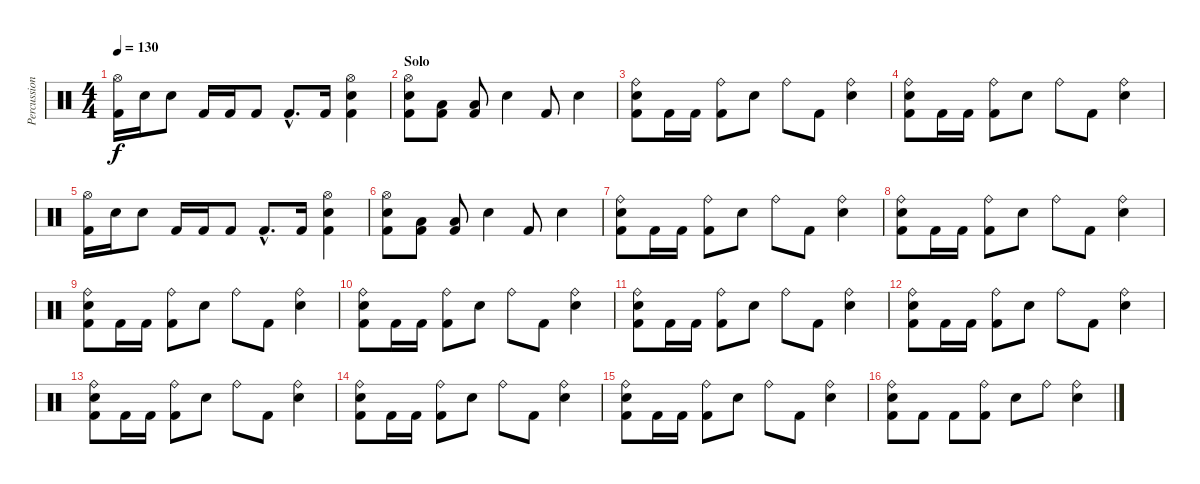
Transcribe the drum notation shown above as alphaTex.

\track ("Percussion" "Percussion") {instrument percussion}
\staff {score}
\articulation defaults
\ts (4 4)
\tempo 130
\clef neutral
\ks c
("Hi-Hat (open)" "Kick (hit) 2").16{dy f} "Electric Snare (hit)".16 "Electric Snare (hit)".8 "Kick (hit) 2".16 "Kick (hit) 2".16 "Kick (hit) 2".8 "Kick (hit) 2"{hac}.8{d} "Kick (hit) 2".16 ("Hi-Hat (open)" "Kick (hit) 2" "Electric Snare (hit)").4 |
\section ("" "Solo")
("Hi-Hat (open)" "Electric Snare (hit)" "Kick (hit) 2").8 ("Low Floor Tom (hit)" "Kick (hit) 2").8 ("Low Floor Tom (hit)" "Kick (hit) 2").8 "Electric Snare (hit)".4 "Kick (hit) 2".8 "Electric Snare (hit)".4 |
("Ride (bell)" "Electric Snare (hit)" "Kick (hit) 2").8 "Kick (hit) 2".16 "Kick (hit) 2".16 ("Ride (bell)" "Kick (hit) 2").8 "Electric Snare (hit)".8 "Ride (bell)".8 "Kick (hit) 2".8 ("Ride (bell)" "Electric Snare (hit)").4 |
("Ride (bell)" "Electric Snare (hit)" "Kick (hit) 2").8 "Kick (hit) 2".16 "Kick (hit) 2".16 ("Ride (bell)" "Kick (hit) 2").8 "Electric Snare (hit)".8 "Ride (bell)".8 "Kick (hit) 2".8 ("Ride (bell)" "Electric Snare (hit)").4 |
("Hi-Hat (open)" "Kick (hit) 2").16 "Electric Snare (hit)".16 "Electric Snare (hit)".8 "Kick (hit) 2".16 "Kick (hit) 2".16 "Kick (hit) 2".8 "Kick (hit) 2"{hac}.8{d} "Kick (hit) 2".16 ("Hi-Hat (open)" "Kick (hit) 2" "Electric Snare (hit)").4 |
("Hi-Hat (open)" "Electric Snare (hit)" "Kick (hit) 2").8 ("Low Floor Tom (hit)" "Kick (hit) 2").8 ("Low Floor Tom (hit)" "Kick (hit) 2").8 "Electric Snare (hit)".4 "Kick (hit) 2".8 "Electric Snare (hit)".4 |
("Ride (bell)" "Electric Snare (hit)" "Kick (hit) 2").8 "Kick (hit) 2".16 "Kick (hit) 2".16 ("Ride (bell)" "Kick (hit) 2").8 "Electric Snare (hit)".8 "Ride (bell)".8 "Kick (hit) 2".8 ("Ride (bell)" "Electric Snare (hit)").4 |
("Ride (bell)" "Electric Snare (hit)" "Kick (hit) 2").8 "Kick (hit) 2".16 "Kick (hit) 2".16 ("Ride (bell)" "Kick (hit) 2").8 "Electric Snare (hit)".8 "Ride (bell)".8 "Kick (hit) 2".8 ("Ride (bell)" "Electric Snare (hit)").4 |
("Ride (bell)" "Electric Snare (hit)" "Kick (hit) 2").8 "Kick (hit) 2".16 "Kick (hit) 2".16 ("Ride (bell)" "Kick (hit) 2").8 "Electric Snare (hit)".8 "Ride (bell)".8 "Kick (hit) 2".8 ("Ride (bell)" "Electric Snare (hit)").4 |
("Ride (bell)" "Electric Snare (hit)" "Kick (hit) 2").8 "Kick (hit) 2".16 "Kick (hit) 2".16 ("Ride (bell)" "Kick (hit) 2").8 "Electric Snare (hit)".8 "Ride (bell)".8 "Kick (hit) 2".8 ("Ride (bell)" "Electric Snare (hit)").4 |
("Ride (bell)" "Electric Snare (hit)" "Kick (hit) 2").8 "Kick (hit) 2".16 "Kick (hit) 2".16 ("Ride (bell)" "Kick (hit) 2").8 "Electric Snare (hit)".8 "Ride (bell)".8 "Kick (hit) 2".8 ("Ride (bell)" "Electric Snare (hit)").4 |
("Ride (bell)" "Electric Snare (hit)" "Kick (hit) 2").8 "Kick (hit) 2".16 "Kick (hit) 2".16 ("Ride (bell)" "Kick (hit) 2").8 "Electric Snare (hit)".8 "Ride (bell)".8 "Kick (hit) 2".8 ("Ride (bell)" "Electric Snare (hit)").4 |
("Ride (bell)" "Electric Snare (hit)" "Kick (hit) 2").8 "Kick (hit) 2".16 "Kick (hit) 2".16 ("Ride (bell)" "Kick (hit) 2").8 "Electric Snare (hit)".8 "Ride (bell)".8 "Kick (hit) 2".8 ("Ride (bell)" "Electric Snare (hit)").4 |
("Ride (bell)" "Electric Snare (hit)" "Kick (hit) 2").8 "Kick (hit) 2".16 "Kick (hit) 2".16 ("Ride (bell)" "Kick (hit) 2").8 "Electric Snare (hit)".8 "Ride (bell)".8 "Kick (hit) 2".8 ("Ride (bell)" "Electric Snare (hit)").4 |
("Ride (bell)" "Electric Snare (hit)" "Kick (hit) 2").8 "Kick (hit) 2".16 "Kick (hit) 2".16 ("Ride (bell)" "Kick (hit) 2").8 "Electric Snare (hit)".8 "Ride (bell)".8 "Kick (hit) 2".8 ("Ride (bell)" "Electric Snare (hit)").4 |
("Ride (bell)" "Electric Snare (hit)" "Kick (hit) 2").8 "Kick (hit) 2".8 "Kick (hit) 2".8 ("Ride (bell)" "Kick (hit) 2").8 "Electric Snare (hit)".8 "Ride (bell)".8 ("Ride (bell)" "Electric Snare (hit)").4
